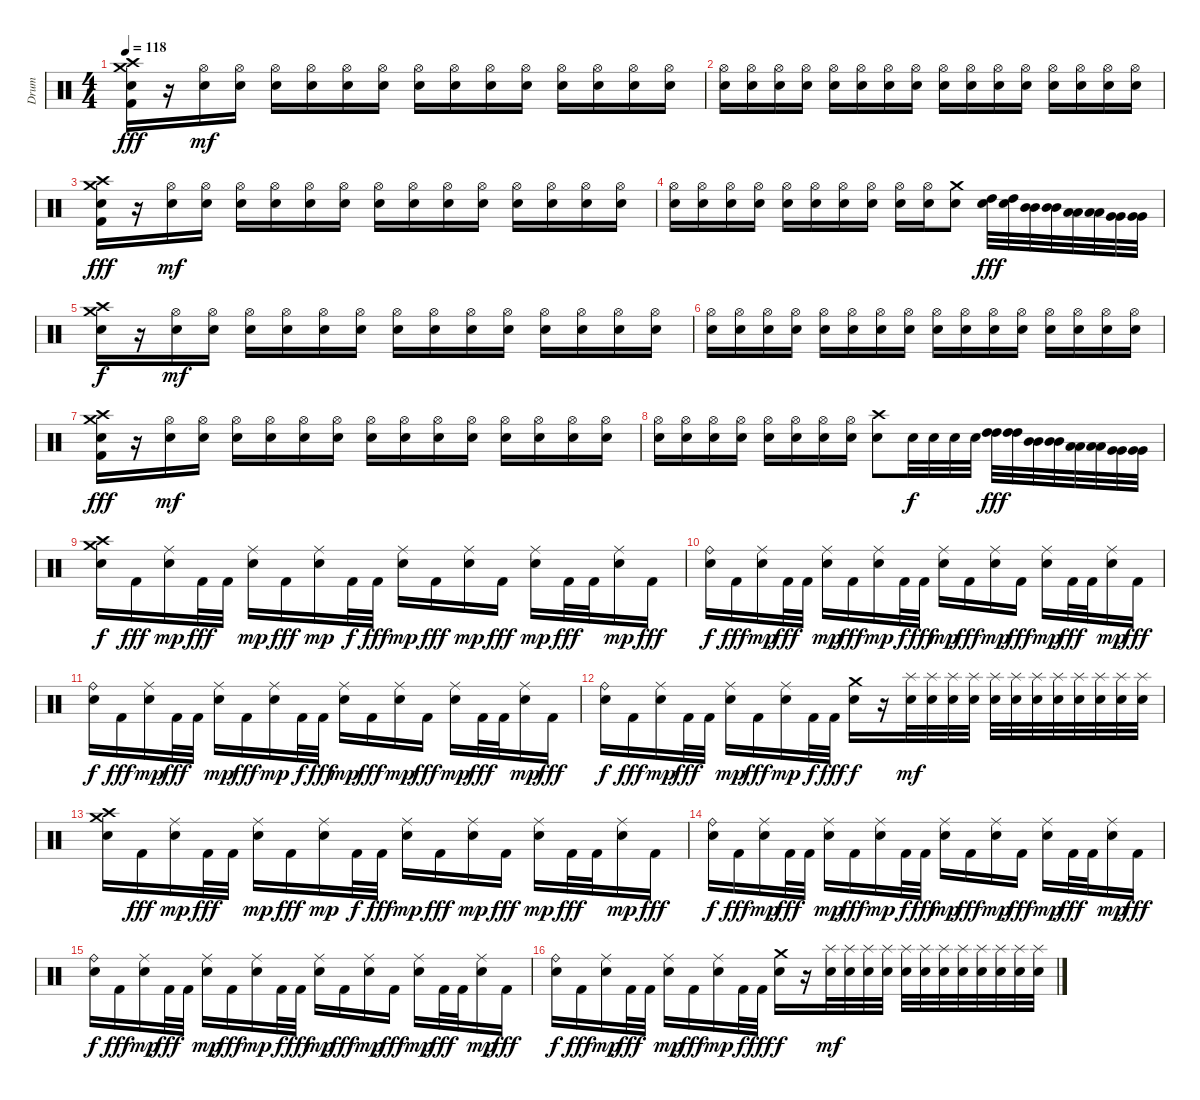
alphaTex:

\track ("Drum" "Drum") {instrument percussion}
\staff {score}
\articulation defaults
\ts (4 4)
\tempo 118
\clef neutral
\ks c
("Crash medium (hit)" "Crash high (hit)" "Electric Snare (hit)" "Kick (hit) 2").16{dy fff} r.16 ("Hi-Hat (open)" "Electric Snare (hit)").16{dy mf} ("Hi-Hat (open)" "Electric Snare (hit)").16 ("Hi-Hat (open)" "Electric Snare (hit)").16 ("Hi-Hat (open)" "Electric Snare (hit)").16 ("Hi-Hat (open)" "Electric Snare (hit)").16 ("Hi-Hat (open)" "Electric Snare (hit)").16 ("Hi-Hat (open)" "Electric Snare (hit)").16 ("Hi-Hat (open)" "Electric Snare (hit)").16 ("Hi-Hat (open)" "Electric Snare (hit)").16 ("Hi-Hat (open)" "Electric Snare (hit)").16 ("Hi-Hat (open)" "Electric Snare (hit)").16 ("Hi-Hat (open)" "Electric Snare (hit)").16 ("Hi-Hat (open)" "Electric Snare (hit)").16 ("Hi-Hat (open)" "Electric Snare (hit)").16 |
("Hi-Hat (open)" "Electric Snare (hit)").16 ("Hi-Hat (open)" "Electric Snare (hit)").16 ("Hi-Hat (open)" "Electric Snare (hit)").16 ("Hi-Hat (open)" "Electric Snare (hit)").16 ("Hi-Hat (open)" "Electric Snare (hit)").16 ("Hi-Hat (open)" "Electric Snare (hit)").16 ("Hi-Hat (open)" "Electric Snare (hit)").16 ("Hi-Hat (open)" "Electric Snare (hit)").16 ("Hi-Hat (open)" "Electric Snare (hit)").16 ("Hi-Hat (open)" "Electric Snare (hit)").16 ("Hi-Hat (open)" "Electric Snare (hit)").16 ("Hi-Hat (open)" "Electric Snare (hit)").16 ("Hi-Hat (open)" "Electric Snare (hit)").16 ("Hi-Hat (open)" "Electric Snare (hit)").16 ("Hi-Hat (open)" "Electric Snare (hit)").16 ("Hi-Hat (open)" "Electric Snare (hit)").16 |
("Crash medium (hit)" "Crash high (hit)" "Electric Snare (hit)" "Kick (hit) 2").16{dy fff} r.16 ("Hi-Hat (open)" "Electric Snare (hit)").16{dy mf} ("Hi-Hat (open)" "Electric Snare (hit)").16 ("Hi-Hat (open)" "Electric Snare (hit)").16 ("Hi-Hat (open)" "Electric Snare (hit)").16 ("Hi-Hat (open)" "Electric Snare (hit)").16 ("Hi-Hat (open)" "Electric Snare (hit)").16 ("Hi-Hat (open)" "Electric Snare (hit)").16 ("Hi-Hat (open)" "Electric Snare (hit)").16 ("Hi-Hat (open)" "Electric Snare (hit)").16 ("Hi-Hat (open)" "Electric Snare (hit)").16 ("Hi-Hat (open)" "Electric Snare (hit)").16 ("Hi-Hat (open)" "Electric Snare (hit)").16 ("Hi-Hat (open)" "Electric Snare (hit)").16 ("Hi-Hat (open)" "Electric Snare (hit)").16 |
("Hi-Hat (open)" "Electric Snare (hit)").16 ("Hi-Hat (open)" "Electric Snare (hit)").16 ("Hi-Hat (open)" "Electric Snare (hit)").16 ("Hi-Hat (open)" "Electric Snare (hit)").16 ("Hi-Hat (open)" "Electric Snare (hit)").16 ("Hi-Hat (open)" "Electric Snare (hit)").16 ("Hi-Hat (open)" "Electric Snare (hit)").16 ("Hi-Hat (open)" "Electric Snare (hit)").16 ("Hi-Hat (open)" "Electric Snare (hit)").16 ("Hi-Hat (open)" "Electric Snare (hit)").16 ("Crash medium (hit)" "Electric Snare (hit)").8 ("High Tom (hit)" "Electric Snare (hit)").32{dy fff} ("High Tom (hit)" "Electric Snare (hit)").32 ("Mid Tom (hit)" "Mid Tom (hit)").32 ("Mid Tom (hit)" "Mid Tom (hit)").32 ("Low Tom (hit)" "Low Tom (hit)").32 ("Low Tom (hit)" "Low Tom (hit)").32 ("Very Low Tom (hit)" "Very Low Tom (hit)").32 ("Very Low Tom (hit)" "Very Low Tom (hit)").32 |
("Crash medium (hit)" "Crash high (hit)" "Electric Snare (hit)").16{dy f} r.16 ("Hi-Hat (open)" "Electric Snare (hit)").16{dy mf} ("Hi-Hat (open)" "Electric Snare (hit)").16 ("Hi-Hat (open)" "Electric Snare (hit)").16 ("Hi-Hat (open)" "Electric Snare (hit)").16 ("Hi-Hat (open)" "Electric Snare (hit)").16 ("Hi-Hat (open)" "Electric Snare (hit)").16 ("Hi-Hat (open)" "Electric Snare (hit)").16 ("Hi-Hat (open)" "Electric Snare (hit)").16 ("Hi-Hat (open)" "Electric Snare (hit)").16 ("Hi-Hat (open)" "Electric Snare (hit)").16 ("Hi-Hat (open)" "Electric Snare (hit)").16 ("Hi-Hat (open)" "Electric Snare (hit)").16 ("Hi-Hat (open)" "Electric Snare (hit)").16 ("Hi-Hat (open)" "Electric Snare (hit)").16 |
("Hi-Hat (open)" "Electric Snare (hit)").16 ("Hi-Hat (open)" "Electric Snare (hit)").16 ("Hi-Hat (open)" "Electric Snare (hit)").16 ("Hi-Hat (open)" "Electric Snare (hit)").16 ("Hi-Hat (open)" "Electric Snare (hit)").16 ("Hi-Hat (open)" "Electric Snare (hit)").16 ("Hi-Hat (open)" "Electric Snare (hit)").16 ("Hi-Hat (open)" "Electric Snare (hit)").16 ("Hi-Hat (open)" "Electric Snare (hit)").16 ("Hi-Hat (open)" "Electric Snare (hit)").16 ("Hi-Hat (open)" "Electric Snare (hit)").16 ("Hi-Hat (open)" "Electric Snare (hit)").16 ("Hi-Hat (open)" "Electric Snare (hit)").16 ("Hi-Hat (open)" "Electric Snare (hit)").16 ("Hi-Hat (open)" "Electric Snare (hit)").16 ("Hi-Hat (open)" "Electric Snare (hit)").16 |
("Crash medium (hit)" "Crash high (hit)" "Electric Snare (hit)" "Kick (hit) 2").16{dy fff} r.16 ("Hi-Hat (open)" "Electric Snare (hit)").16{dy mf} ("Hi-Hat (open)" "Electric Snare (hit)").16 ("Hi-Hat (open)" "Electric Snare (hit)").16 ("Hi-Hat (open)" "Electric Snare (hit)").16 ("Hi-Hat (open)" "Electric Snare (hit)").16 ("Hi-Hat (open)" "Electric Snare (hit)").16 ("Hi-Hat (open)" "Electric Snare (hit)").16 ("Hi-Hat (open)" "Electric Snare (hit)").16 ("Hi-Hat (open)" "Electric Snare (hit)").16 ("Hi-Hat (open)" "Electric Snare (hit)").16 ("Hi-Hat (open)" "Electric Snare (hit)").16 ("Hi-Hat (open)" "Electric Snare (hit)").16 ("Hi-Hat (open)" "Electric Snare (hit)").16 ("Hi-Hat (open)" "Electric Snare (hit)").16 |
("Hi-Hat (open)" "Electric Snare (hit)").16 ("Hi-Hat (open)" "Electric Snare (hit)").16 ("Hi-Hat (open)" "Electric Snare (hit)").16 ("Hi-Hat (open)" "Electric Snare (hit)").16 ("Hi-Hat (open)" "Electric Snare (hit)").16 ("Hi-Hat (open)" "Electric Snare (hit)").16 ("Hi-Hat (open)" "Electric Snare (hit)").16 ("Hi-Hat (open)" "Electric Snare (hit)").16 ("Crash high (hit)" "Electric Snare (hit)").8 "Electric Snare (hit)".32{dy f} "Electric Snare (hit)".32 "Electric Snare (hit)".32 "Electric Snare (hit)".32 ("High Tom (hit)" "High Tom (hit)").32{dy fff} ("High Tom (hit)" "High Tom (hit)").32 ("Mid Tom (hit)" "Mid Tom (hit)").32 ("Mid Tom (hit)" "Mid Tom (hit)").32 ("Low Tom (hit)" "Low Tom (hit)").32 ("Low Tom (hit)" "Low Tom (hit)").32 ("Very Low Tom (hit)" "Very Low Tom (hit)").32 ("Very Low Tom (hit)" "Very Low Tom (hit)").32 |
("Crash medium (hit)" "Crash high (hit)" "Electric Snare (hit)").16{dy f} "Kick (hit) 2".16{dy fff} ("Ride (middle)" "Electric Snare (hit)").16{dy mp} "Kick (hit) 2".32{dy fff} "Kick (hit) 2".32 ("Ride (middle)" "Electric Snare (hit)").16{dy mp} "Kick (hit) 2".16{dy fff} ("Ride (middle)" "Electric Snare (hit)").16{dy mp} "Kick (hit) 2".32{dy f} "Kick (hit) 2".32{dy fff} ("Ride (middle)" "Electric Snare (hit)").16{dy mp} "Kick (hit) 2".16{dy fff} ("Ride (middle)" "Electric Snare (hit)").16{dy mp} "Kick (hit) 2".16{dy fff} ("Ride (middle)" "Electric Snare (hit)").16{dy mp} "Kick (hit) 2".32{dy fff} "Kick (hit) 2".32 ("Ride (middle)" "Electric Snare (hit)").16{dy mp} "Kick (hit) 2".16{dy fff} |
("Ride (bell)" "Electric Snare (hit)").16{dy f} "Kick (hit) 2".16{dy fff} ("Ride (middle)" "Electric Snare (hit)").16{dy mp} "Kick (hit) 2".32{dy fff} "Kick (hit) 2".32 ("Ride (middle)" "Electric Snare (hit)").16{dy mp} "Kick (hit) 2".16{dy fff} ("Ride (middle)" "Electric Snare (hit)").16{dy mp} "Kick (hit) 2".32{dy f} "Kick (hit) 2".32{dy fff} ("Ride (middle)" "Electric Snare (hit)").16{dy mp} "Kick (hit) 2".16{dy fff} ("Ride (middle)" "Electric Snare (hit)").16{dy mp} "Kick (hit) 2".16{dy fff} ("Ride (middle)" "Electric Snare (hit)").16{dy mp} "Kick (hit) 2".32{dy fff} "Kick (hit) 2".32 ("Ride (middle)" "Electric Snare (hit)").16{dy mp} "Kick (hit) 2".16{dy fff} |
("Ride (bell)" "Electric Snare (hit)").16{dy f} "Kick (hit) 2".16{dy fff} ("Ride (middle)" "Electric Snare (hit)").16{dy mp} "Kick (hit) 2".32{dy fff} "Kick (hit) 2".32 ("Ride (middle)" "Electric Snare (hit)").16{dy mp} "Kick (hit) 2".16{dy fff} ("Ride (middle)" "Electric Snare (hit)").16{dy mp} "Kick (hit) 2".32{dy f} "Kick (hit) 2".32{dy fff} ("Ride (middle)" "Electric Snare (hit)").16{dy mp} "Kick (hit) 2".16{dy fff} ("Ride (middle)" "Electric Snare (hit)").16{dy mp} "Kick (hit) 2".16{dy fff} ("Ride (middle)" "Electric Snare (hit)").16{dy mp} "Kick (hit) 2".32{dy fff} "Kick (hit) 2".32 ("Ride (middle)" "Electric Snare (hit)").16{dy mp} "Kick (hit) 2".16{dy fff} |
("Ride (bell)" "Electric Snare (hit)").16{dy f} "Kick (hit) 2".16{dy fff} ("Ride (middle)" "Electric Snare (hit)").16{dy mp} "Kick (hit) 2".32{dy fff} "Kick (hit) 2".32 ("Ride (middle)" "Electric Snare (hit)").16{dy mp} "Kick (hit) 2".16{dy fff} ("Ride (middle)" "Electric Snare (hit)").16{dy mp} "Kick (hit) 2".32{dy f} "Kick (hit) 2".32{dy fff} ("Crash medium (hit)" "Electric Snare (hit)").16{dy f} r.16 ("Splash (hit)" "Electric Snare (hit)").32{dy mf} ("Splash (hit)" "Electric Snare (hit)").32 ("Splash (hit)" "Electric Snare (hit)").32 ("Splash (hit)" "Electric Snare (hit)").32 ("Splash (hit)" "Electric Snare (hit)").32 ("Splash (hit)" "Electric Snare (hit)").32 ("Splash (hit)" "Electric Snare (hit)").32 ("Splash (hit)" "Electric Snare (hit)").32 ("Splash (hit)" "Electric Snare (hit)").32 ("Splash (hit)" "Electric Snare (hit)").32 ("Splash (hit)" "Electric Snare (hit)").32 ("Splash (hit)" "Electric Snare (hit)").32 |
("Crash high (hit)" "Crash medium (hit)" "Electric Snare (hit)").16 "Kick (hit) 2".16{dy fff} ("Ride (middle)" "Electric Snare (hit)").16{dy mp} "Kick (hit) 2".32{dy fff} "Kick (hit) 2".32 ("Ride (middle)" "Electric Snare (hit)").16{dy mp} "Kick (hit) 2".16{dy fff} ("Ride (middle)" "Electric Snare (hit)").16{dy mp} "Kick (hit) 2".32{dy f} "Kick (hit) 2".32{dy fff} ("Ride (middle)" "Electric Snare (hit)").16{dy mp} "Kick (hit) 2".16{dy fff} ("Ride (middle)" "Electric Snare (hit)").16{dy mp} "Kick (hit) 2".16{dy fff} ("Ride (middle)" "Electric Snare (hit)").16{dy mp} "Kick (hit) 2".32{dy fff} "Kick (hit) 2".32 ("Ride (middle)" "Electric Snare (hit)").16{dy mp} "Kick (hit) 2".16{dy fff} |
("Ride (bell)" "Electric Snare (hit)").16{dy f} "Kick (hit) 2".16{dy fff} ("Ride (middle)" "Electric Snare (hit)").16{dy mp} "Kick (hit) 2".32{dy fff} "Kick (hit) 2".32 ("Ride (middle)" "Electric Snare (hit)").16{dy mp} "Kick (hit) 2".16{dy fff} ("Ride (middle)" "Electric Snare (hit)").16{dy mp} "Kick (hit) 2".32{dy f} "Kick (hit) 2".32{dy fff} ("Ride (middle)" "Electric Snare (hit)").16{dy mp} "Kick (hit) 2".16{dy fff} ("Ride (middle)" "Electric Snare (hit)").16{dy mp} "Kick (hit) 2".16{dy fff} ("Ride (middle)" "Electric Snare (hit)").16{dy mp} "Kick (hit) 2".32{dy fff} "Kick (hit) 2".32 ("Ride (middle)" "Electric Snare (hit)").16{dy mp} "Kick (hit) 2".16{dy fff} |
("Ride (bell)" "Electric Snare (hit)").16{dy f} "Kick (hit) 2".16{dy fff} ("Ride (middle)" "Electric Snare (hit)").16{dy mp} "Kick (hit) 2".32{dy fff} "Kick (hit) 2".32 ("Ride (middle)" "Electric Snare (hit)").16{dy mp} "Kick (hit) 2".16{dy fff} ("Ride (middle)" "Electric Snare (hit)").16{dy mp} "Kick (hit) 2".32{dy f} "Kick (hit) 2".32{dy fff} ("Ride (middle)" "Electric Snare (hit)").16{dy mp} "Kick (hit) 2".16{dy fff} ("Ride (middle)" "Electric Snare (hit)").16{dy mp} "Kick (hit) 2".16{dy fff} ("Ride (middle)" "Electric Snare (hit)").16{dy mp} "Kick (hit) 2".32{dy fff} "Kick (hit) 2".32 ("Ride (middle)" "Electric Snare (hit)").16{dy mp} "Kick (hit) 2".16{dy fff} |
("Ride (bell)" "Electric Snare (hit)").16{dy f} "Kick (hit) 2".16{dy fff} ("Ride (middle)" "Electric Snare (hit)").16{dy mp} "Kick (hit) 2".32{dy fff} "Kick (hit) 2".32 ("Ride (middle)" "Electric Snare (hit)").16{dy mp} "Kick (hit) 2".16{dy fff} ("Ride (middle)" "Electric Snare (hit)").16{dy mp} "Kick (hit) 2".32{dy f} "Kick (hit) 2".32{dy fff} ("Crash medium (hit)" "Electric Snare (hit)").16{dy f} r.16 ("Splash (hit)" "Electric Snare (hit)").32{dy mf} ("Splash (hit)" "Electric Snare (hit)").32 ("Splash (hit)" "Electric Snare (hit)").32 ("Splash (hit)" "Electric Snare (hit)").32 ("Splash (hit)" "Electric Snare (hit)").32 ("Splash (hit)" "Electric Snare (hit)").32 ("Splash (hit)" "Electric Snare (hit)").32 ("Splash (hit)" "Electric Snare (hit)").32 ("Splash (hit)" "Electric Snare (hit)").32 ("Splash (hit)" "Electric Snare (hit)").32 ("Splash (hit)" "Electric Snare (hit)").32 ("Splash (hit)" "Electric Snare (hit)").32
